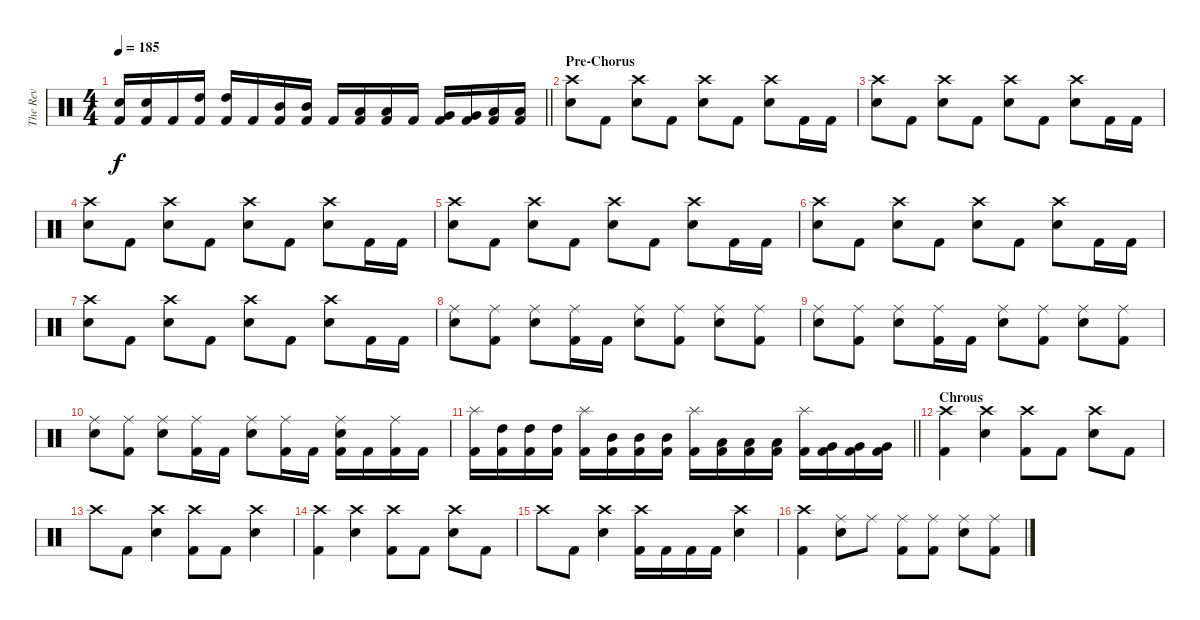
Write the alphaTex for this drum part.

\track ("The Rev" "The Rev") {instrument percussion}
\staff {score}
\articulation defaults
\ts (4 4)
\tempo 185
\clef neutral
\barLineRight lightlight
\ks c
("Electric Snare (hit)" "Kick (hit) 2").16{dy f} ("Electric Snare (hit)" "Kick (hit) 2").16 "Kick (hit) 2".16 ("High Tom (hit)" "Kick (hit) 2").16 ("High Tom (hit)" "Kick (hit) 2").16 "Kick (hit) 2".16 ("Mid Tom (hit)" "Kick (hit) 2").16 ("Mid Tom (hit)" "Kick (hit) 2").16 "Kick (hit) 2".16 ("Low Tom (hit)" "Kick (hit) 2").16 ("Low Tom (hit)" "Kick (hit) 2").16 "Kick (hit) 2".16 ("Very Low Tom (hit)" "Kick (hit) 2").16 ("Very Low Tom (hit)" "Kick (hit) 2").16 ("Low Tom (hit)" "Kick (hit) 2").16 ("Low Tom (hit)" "Kick (hit) 2").16 |
\section ("" "Pre-Chorus")
("Crash high (hit)" "Electric Snare (hit)").8 "Kick (hit) 2".8 ("Crash high (hit)" "Electric Snare (hit)").8 "Kick (hit) 2".8 ("Crash high (hit)" "Electric Snare (hit)").8 "Kick (hit) 2".8 ("Crash high (hit)" "Electric Snare (hit)").8 "Kick (hit) 2".16 "Kick (hit) 2".16 |
("Crash high (hit)" "Electric Snare (hit)").8 "Kick (hit) 2".8 ("Crash high (hit)" "Electric Snare (hit)").8 "Kick (hit) 2".8 ("Crash high (hit)" "Electric Snare (hit)").8 "Kick (hit) 2".8 ("Crash high (hit)" "Electric Snare (hit)").8 "Kick (hit) 2".16 "Kick (hit) 2".16 |
("Crash high (hit)" "Electric Snare (hit)").8 "Kick (hit) 2".8 ("Crash high (hit)" "Electric Snare (hit)").8 "Kick (hit) 2".8 ("Crash high (hit)" "Electric Snare (hit)").8 "Kick (hit) 2".8 ("Crash high (hit)" "Electric Snare (hit)").8 "Kick (hit) 2".16 "Kick (hit) 2".16 |
("Crash high (hit)" "Electric Snare (hit)").8 "Kick (hit) 2".8 ("Crash high (hit)" "Electric Snare (hit)").8 "Kick (hit) 2".8 ("Crash high (hit)" "Electric Snare (hit)").8 "Kick (hit) 2".8 ("Crash high (hit)" "Electric Snare (hit)").8 "Kick (hit) 2".16 "Kick (hit) 2".16 |
("Crash high (hit)" "Electric Snare (hit)").8 "Kick (hit) 2".8 ("Crash high (hit)" "Electric Snare (hit)").8 "Kick (hit) 2".8 ("Crash high (hit)" "Electric Snare (hit)").8 "Kick (hit) 2".8 ("Crash high (hit)" "Electric Snare (hit)").8 "Kick (hit) 2".16 "Kick (hit) 2".16 |
("Crash high (hit)" "Electric Snare (hit)").8 "Kick (hit) 2".8 ("Crash high (hit)" "Electric Snare (hit)").8 "Kick (hit) 2".8 ("Crash high (hit)" "Electric Snare (hit)").8 "Kick (hit) 2".8 ("Crash high (hit)" "Electric Snare (hit)").8 "Kick (hit) 2".16 "Kick (hit) 2".16 |
("Ride (middle)" "Electric Snare (hit)").8 ("Ride (middle)" "Kick (hit) 2").8 ("Ride (middle)" "Electric Snare (hit)").8 ("Ride (middle)" "Kick (hit) 2").16 "Kick (hit) 2".16 ("Ride (middle)" "Electric Snare (hit)").8 ("Ride (middle)" "Kick (hit) 2").8 ("Ride (middle)" "Electric Snare (hit)").8 ("Ride (middle)" "Kick (hit) 2").8 |
("Ride (middle)" "Electric Snare (hit)").8 ("Ride (middle)" "Kick (hit) 2").8 ("Ride (middle)" "Electric Snare (hit)").8 ("Ride (middle)" "Kick (hit) 2").16 "Kick (hit) 2".16 ("Ride (middle)" "Electric Snare (hit)").8 ("Ride (middle)" "Kick (hit) 2").8 ("Ride (middle)" "Electric Snare (hit)").8 ("Ride (middle)" "Kick (hit) 2").8 |
("Ride (middle)" "Electric Snare (hit)").8 ("Ride (middle)" "Kick (hit) 2").8 ("Ride (middle)" "Electric Snare (hit)").8 ("Ride (middle)" "Kick (hit) 2").16 "Kick (hit) 2".16 ("Ride (middle)" "Electric Snare (hit)").8 ("Ride (middle)" "Kick (hit) 2").16 "Kick (hit) 2".16 ("Ride (middle)" "Electric Snare (hit)" "Kick (hit) 2").16 "Kick (hit) 2".16 ("Ride (middle)" "Kick (hit) 2").16 "Kick (hit) 2".16 |
\barLineRight lightlight
("Splash (hit)" "Kick (hit) 2").16 ("High Tom (hit)" "Kick (hit) 2").16 ("High Tom (hit)" "Kick (hit) 2").16 ("High Tom (hit)" "Kick (hit) 2").16 ("Splash (hit)" "Kick (hit) 2").16 ("Mid Tom (hit)" "Kick (hit) 2").16 ("Mid Tom (hit)" "Kick (hit) 2").16 ("Mid Tom (hit)" "Kick (hit) 2").16 ("Splash (hit)" "Kick (hit) 2").16 ("Low Tom (hit)" "Kick (hit) 2").16 ("Low Tom (hit)" "Kick (hit) 2").16 ("Low Tom (hit)" "Kick (hit) 2").16 ("Splash (hit)" "Kick (hit) 2").16 ("Very Low Tom (hit)" "Kick (hit) 2").16 ("Very Low Tom (hit)" "Kick (hit) 2").16 ("Very Low Tom (hit)" "Kick (hit) 2").16 |
\section ("" "Chrous")
("Crash high (hit)" "Kick (hit) 2").4 ("Crash high (hit)" "Electric Snare (hit)").4 ("Crash high (hit)" "Kick (hit) 2").8 "Kick (hit) 2".8 ("Crash high (hit)" "Electric Snare (hit)").8 "Kick (hit) 2".8 |
"Crash high (hit)".8 "Kick (hit) 2".8 ("Crash high (hit)" "Electric Snare (hit)").4 ("Crash high (hit)" "Kick (hit) 2").8 "Kick (hit) 2".8 ("Crash high (hit)" "Electric Snare (hit)").4 |
("Crash high (hit)" "Kick (hit) 2").4 ("Crash high (hit)" "Electric Snare (hit)").4 ("Crash high (hit)" "Kick (hit) 2").8 "Kick (hit) 2".8 ("Crash high (hit)" "Electric Snare (hit)").8 "Kick (hit) 2".8 |
"Crash high (hit)".8 "Kick (hit) 2".8 ("Crash high (hit)" "Electric Snare (hit)").4 ("Crash high (hit)" "Kick (hit) 2").16 "Kick (hit) 2".16 "Kick (hit) 2".16 "Kick (hit) 2".16 ("Crash high (hit)" "Electric Snare (hit)").4 |
("Crash high (hit)" "Kick (hit) 2").4 ("Ride (middle)" "Electric Snare (hit)").8 "Ride (middle)".8 ("Ride (middle)" "Kick (hit) 2").8 ("Ride (middle)" "Kick (hit) 2").8 ("Ride (middle)" "Electric Snare (hit)").8 ("Ride (middle)" "Kick (hit) 2").8
